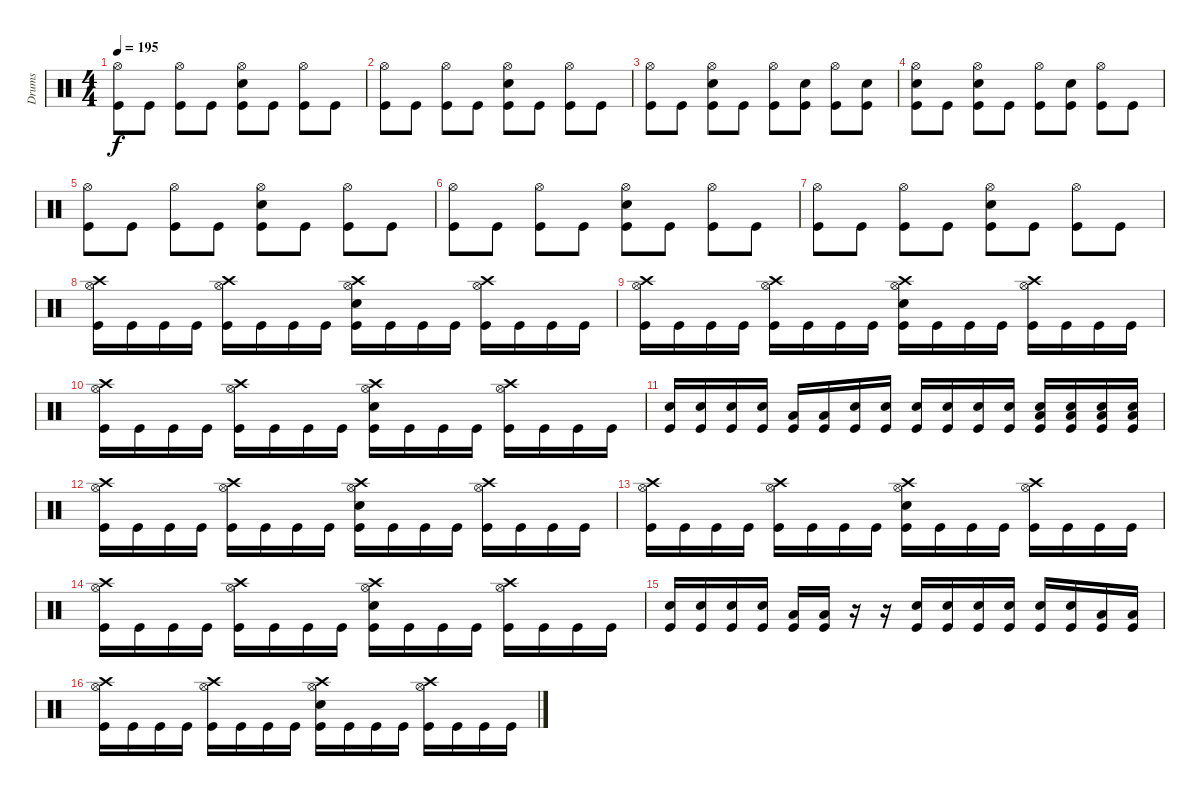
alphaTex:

\track ("Drums" "Drums") {instrument percussion}
\staff {score}
\articulation defaults
\ts (4 4)
\tempo 195
\clef neutral
\ks c
("Hi-Hat (open)" "Kick (hit)").8{dy f} "Kick (hit)".8 ("Hi-Hat (open)" "Kick (hit)").8 "Kick (hit)".8 ("Hi-Hat (open)" "Electric Snare (hit)" "Kick (hit)").8 "Kick (hit)".8 ("Hi-Hat (open)" "Kick (hit)").8 "Kick (hit)".8 |
("Hi-Hat (open)" "Kick (hit)").8 "Kick (hit)".8 ("Hi-Hat (open)" "Kick (hit)").8 "Kick (hit)".8 ("Hi-Hat (open)" "Electric Snare (hit)" "Kick (hit)").8 "Kick (hit)".8 ("Hi-Hat (open)" "Kick (hit)").8 "Kick (hit)".8 |
("Hi-Hat (open)" "Kick (hit)").8 "Kick (hit)".8 ("Hi-Hat (open)" "Electric Snare (hit)" "Kick (hit)").8 "Kick (hit)".8 ("Hi-Hat (open)" "Kick (hit)").8 ("Electric Snare (hit)" "Kick (hit)").8 ("Hi-Hat (open)" "Kick (hit)").8 ("Electric Snare (hit)" "Kick (hit)").8 |
("Hi-Hat (open)" "Electric Snare (hit)" "Kick (hit)").8 "Kick (hit)".8 ("Hi-Hat (open)" "Electric Snare (hit)" "Kick (hit)").8 "Kick (hit)".8 ("Hi-Hat (open)" "Kick (hit)").8 ("Electric Snare (hit)" "Kick (hit)").8 ("Hi-Hat (open)" "Kick (hit)").8 "Kick (hit)".8 |
("Hi-Hat (open)" "Kick (hit)").8 "Kick (hit)".8 ("Hi-Hat (open)" "Kick (hit)").8 "Kick (hit)".8 ("Hi-Hat (open)" "Electric Snare (hit)" "Kick (hit)").8 "Kick (hit)".8 ("Hi-Hat (open)" "Kick (hit)").8 "Kick (hit)".8 |
("Hi-Hat (open)" "Kick (hit)").8 "Kick (hit)".8 ("Hi-Hat (open)" "Kick (hit)").8 "Kick (hit)".8 ("Hi-Hat (open)" "Electric Snare (hit)" "Kick (hit)").8 "Kick (hit)".8 ("Hi-Hat (open)" "Kick (hit)").8 "Kick (hit)".8 |
("Hi-Hat (open)" "Kick (hit)").8 "Kick (hit)".8 ("Hi-Hat (open)" "Kick (hit)").8 "Kick (hit)".8 ("Hi-Hat (open)" "Electric Snare (hit)" "Kick (hit)").8 "Kick (hit)".8 ("Hi-Hat (open)" "Kick (hit)").8 "Kick (hit)".8 |
("Crash high (hit)" "Hi-Hat (open)" "Kick (hit)").16 "Kick (hit)".16 "Kick (hit)".16 "Kick (hit)".16 ("Crash high (hit)" "Hi-Hat (open)" "Kick (hit)").16 "Kick (hit)".16 "Kick (hit)".16 "Kick (hit)".16 ("Crash high (hit)" "Hi-Hat (open)" "Electric Snare (hit)" "Kick (hit)").16 "Kick (hit)".16 "Kick (hit)".16 "Kick (hit)".16 ("Crash high (hit)" "Hi-Hat (open)" "Kick (hit)").16 "Kick (hit)".16 "Kick (hit)".16 "Kick (hit)".16 |
("Crash high (hit)" "Hi-Hat (open)" "Kick (hit)").16 "Kick (hit)".16 "Kick (hit)".16 "Kick (hit)".16 ("Crash high (hit)" "Hi-Hat (open)" "Kick (hit)").16 "Kick (hit)".16 "Kick (hit)".16 "Kick (hit)".16 ("Crash high (hit)" "Hi-Hat (open)" "Electric Snare (hit)" "Kick (hit)").16 "Kick (hit)".16 "Kick (hit)".16 "Kick (hit)".16 ("Crash high (hit)" "Hi-Hat (open)" "Kick (hit)").16 "Kick (hit)".16 "Kick (hit)".16 "Kick (hit)".16 |
("Crash high (hit)" "Hi-Hat (open)" "Kick (hit)").16 "Kick (hit)".16 "Kick (hit)".16 "Kick (hit)".16 ("Crash high (hit)" "Hi-Hat (open)" "Kick (hit)").16 "Kick (hit)".16 "Kick (hit)".16 "Kick (hit)".16 ("Crash high (hit)" "Hi-Hat (open)" "Electric Snare (hit)" "Kick (hit)").16 "Kick (hit)".16 "Kick (hit)".16 "Kick (hit)".16 ("Crash high (hit)" "Hi-Hat (open)" "Kick (hit)").16 "Kick (hit)".16 "Kick (hit)".16 "Kick (hit)".16 |
("Electric Snare (hit)" "Kick (hit)").16 ("Electric Snare (hit)" "Kick (hit)").16 ("Electric Snare (hit)" "Kick (hit)").16 ("Electric Snare (hit)" "Kick (hit)").16 ("Low Floor Tom (hit)" "Kick (hit)").16 ("Low Floor Tom (hit)" "Kick (hit)").16 ("Electric Snare (hit)" "Kick (hit)").16 ("Electric Snare (hit)" "Kick (hit)").16 ("Electric Snare (hit)" "Kick (hit)").16 ("Electric Snare (hit)" "Kick (hit)").16 ("Electric Snare (hit)" "Kick (hit)").16 ("Electric Snare (hit)" "Kick (hit)").16 ("Low Tom (hit)" "Electric Snare (hit)" "Kick (hit)").16 ("Low Tom (hit)" "Electric Snare (hit)" "Kick (hit)").16 ("Low Tom (hit)" "Electric Snare (hit)" "Kick (hit)").16 ("Low Tom (hit)" "Electric Snare (hit)" "Kick (hit)").16 |
("Crash high (hit)" "Hi-Hat (open)" "Kick (hit)").16 "Kick (hit)".16 "Kick (hit)".16 "Kick (hit)".16 ("Crash high (hit)" "Hi-Hat (open)" "Kick (hit)").16 "Kick (hit)".16 "Kick (hit)".16 "Kick (hit)".16 ("Crash high (hit)" "Hi-Hat (open)" "Electric Snare (hit)" "Kick (hit)").16 "Kick (hit)".16 "Kick (hit)".16 "Kick (hit)".16 ("Crash high (hit)" "Hi-Hat (open)" "Kick (hit)").16 "Kick (hit)".16 "Kick (hit)".16 "Kick (hit)".16 |
("Crash high (hit)" "Hi-Hat (open)" "Kick (hit)").16 "Kick (hit)".16 "Kick (hit)".16 "Kick (hit)".16 ("Crash high (hit)" "Hi-Hat (open)" "Kick (hit)").16 "Kick (hit)".16 "Kick (hit)".16 "Kick (hit)".16 ("Crash high (hit)" "Hi-Hat (open)" "Electric Snare (hit)" "Kick (hit)").16 "Kick (hit)".16 "Kick (hit)".16 "Kick (hit)".16 ("Crash high (hit)" "Hi-Hat (open)" "Kick (hit)").16 "Kick (hit)".16 "Kick (hit)".16 "Kick (hit)".16 |
("Crash high (hit)" "Hi-Hat (open)" "Kick (hit)").16 "Kick (hit)".16 "Kick (hit)".16 "Kick (hit)".16 ("Crash high (hit)" "Hi-Hat (open)" "Kick (hit)").16 "Kick (hit)".16 "Kick (hit)".16 "Kick (hit)".16 ("Crash high (hit)" "Hi-Hat (open)" "Electric Snare (hit)" "Kick (hit)").16 "Kick (hit)".16 "Kick (hit)".16 "Kick (hit)".16 ("Crash high (hit)" "Hi-Hat (open)" "Kick (hit)").16 "Kick (hit)".16 "Kick (hit)".16 "Kick (hit)".16 |
("Electric Snare (hit)" "Kick (hit)").16 ("Electric Snare (hit)" "Kick (hit)").16 ("Electric Snare (hit)" "Kick (hit)").16 ("Electric Snare (hit)" "Kick (hit)").16 ("Low Floor Tom (hit)" "Kick (hit)").16 ("Low Floor Tom (hit)" "Kick (hit)").16 r.16 r.16 ("Electric Snare (hit)" "Kick (hit)").16 ("Electric Snare (hit)" "Kick (hit)").16 ("Electric Snare (hit)" "Kick (hit)").16 ("Electric Snare (hit)" "Kick (hit)").16 ("Electric Snare (hit)" "Kick (hit)").16 ("Electric Snare (hit)" "Kick (hit)").16 ("Low Floor Tom (hit)" "Kick (hit)").16 ("Low Floor Tom (hit)" "Kick (hit)").16 |
("Crash high (hit)" "Hi-Hat (open)" "Kick (hit)").16 "Kick (hit)".16 "Kick (hit)".16 "Kick (hit)".16 ("Crash high (hit)" "Hi-Hat (open)" "Kick (hit)").16 "Kick (hit)".16 "Kick (hit)".16 "Kick (hit)".16 ("Crash high (hit)" "Hi-Hat (open)" "Electric Snare (hit)" "Kick (hit)").16 "Kick (hit)".16 "Kick (hit)".16 "Kick (hit)".16 ("Crash high (hit)" "Hi-Hat (open)" "Kick (hit)").16 "Kick (hit)".16 "Kick (hit)".16 "Kick (hit)".16
